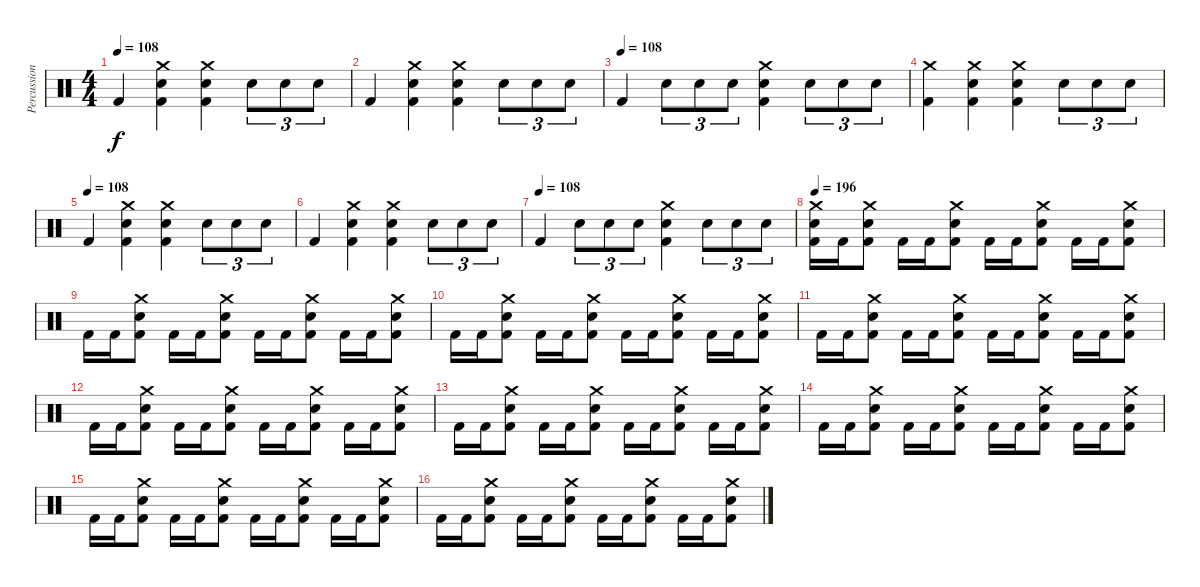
\track ("Percussions" "Percussion") {instrument percussion}
\staff {score}
\articulation defaults
\ts (4 4)
\tempo 108
\clef neutral
\ks c "Kick (hit) 2".4{dy f}
("Kick (hit) 2" "Snare (hit) 2" "Crash medium (hit)").4 ("Kick (hit) 2" "Snare (hit) 2" "Crash medium (hit)").4 "Snare (hit) 2".8{tu (3 2)} "Snare (hit) 2".8{tu (3 2)} "Snare (hit) 2".8{tu (3 2)} |
"Kick (hit) 2".4 ("Kick (hit) 2" "Snare (hit) 2" "Crash medium (hit)").4 ("Kick (hit) 2" "Snare (hit) 2" "Crash medium (hit)").4 "Snare (hit) 2".8{tu (3 2)} "Snare (hit) 2".8{tu (3 2)} "Snare (hit) 2".8{tu (3 2)} |
\tempo (108)
"Kick (hit) 2".4 "Snare (hit) 2".8{tu (3 2)} "Snare (hit) 2".8{tu (3 2)} "Snare (hit) 2".8{tu (3 2)} ("Kick (hit) 2" "Snare (hit) 2" "Crash medium (hit)").4 "Snare (hit) 2".8{tu (3 2)} "Snare (hit) 2".8{tu (3 2)} "Snare (hit) 2".8{tu (3 2)} |
("Kick (hit) 2" "Crash medium (hit)").4 ("Kick (hit) 2" "Crash medium (hit)" "Snare (hit) 2").4 ("Kick (hit) 2" "Crash medium (hit)" "Snare (hit) 2").4 "Snare (hit) 2".8{tu (3 2)} "Snare (hit) 2".8{tu (3 2)} "Snare (hit) 2".8{tu (3 2)} |
\tempo (108)
"Kick (hit) 2".4 ("Kick (hit) 2" "Snare (hit) 2" "Crash medium (hit)").4 ("Kick (hit) 2" "Snare (hit) 2" "Crash medium (hit)").4 "Snare (hit) 2".8{tu (3 2)} "Snare (hit) 2".8{tu (3 2)} "Snare (hit) 2".8{tu (3 2)} |
"Kick (hit) 2".4 ("Kick (hit) 2" "Snare (hit) 2" "Crash medium (hit)").4 ("Kick (hit) 2" "Snare (hit) 2" "Crash medium (hit)").4 "Snare (hit) 2".8{tu (3 2)} "Snare (hit) 2".8{tu (3 2)} "Snare (hit) 2".8{tu (3 2)} |
\tempo (108)
"Kick (hit) 2".4 "Snare (hit) 2".8{tu (3 2)} "Snare (hit) 2".8{tu (3 2)} "Snare (hit) 2".8{tu (3 2)} ("Kick (hit) 2" "Snare (hit) 2" "Crash medium (hit)").4 "Snare (hit) 2".8{tu (3 2)} "Snare (hit) 2".8{tu (3 2)} "Snare (hit) 2".8{tu (3 2)} |
\tempo 196
("Kick (hit) 2" "Snare (hit) 2" "Crash medium (hit)").16 "Kick (hit) 2".16 ("Kick (hit) 2" "Snare (hit) 2" "Crash medium (hit)").8 "Kick (hit) 2".16 "Kick (hit) 2".16 ("Kick (hit) 2" "Snare (hit) 2" "Crash medium (hit)").8 "Kick (hit) 2".16 "Kick (hit) 2".16 ("Kick (hit) 2" "Snare (hit) 2" "Crash medium (hit)").8 "Kick (hit) 2".16 "Kick (hit) 2".16 ("Kick (hit) 2" "Snare (hit) 2" "Crash medium (hit)").8 |
"Kick (hit) 2".16 "Kick (hit) 2".16 ("Kick (hit) 2" "Snare (hit) 2" "Crash medium (hit)").8 "Kick (hit) 2".16 "Kick (hit) 2".16 ("Kick (hit) 2" "Snare (hit) 2" "Crash medium (hit)").8 "Kick (hit) 2".16 "Kick (hit) 2".16 ("Kick (hit) 2" "Snare (hit) 2" "Crash medium (hit)").8 "Kick (hit) 2".16 "Kick (hit) 2".16 ("Kick (hit) 2" "Snare (hit) 2" "Crash medium (hit)").8 |
"Kick (hit) 2".16 "Kick (hit) 2".16 ("Kick (hit) 2" "Snare (hit) 2" "Crash medium (hit)").8 "Kick (hit) 2".16 "Kick (hit) 2".16 ("Kick (hit) 2" "Snare (hit) 2" "Crash medium (hit)").8 "Kick (hit) 2".16 "Kick (hit) 2".16 ("Kick (hit) 2" "Snare (hit) 2" "Crash medium (hit)").8 "Kick (hit) 2".16 "Kick (hit) 2".16 ("Kick (hit) 2" "Snare (hit) 2" "Crash medium (hit)").8 |
"Kick (hit) 2".16 "Kick (hit) 2".16 ("Kick (hit) 2" "Snare (hit) 2" "Crash medium (hit)").8 "Kick (hit) 2".16 "Kick (hit) 2".16 ("Kick (hit) 2" "Snare (hit) 2" "Crash medium (hit)").8 "Kick (hit) 2".16 "Kick (hit) 2".16 ("Kick (hit) 2" "Snare (hit) 2" "Crash medium (hit)").8 "Kick (hit) 2".16 "Kick (hit) 2".16 ("Kick (hit) 2" "Snare (hit) 2" "Crash medium (hit)").8 |
"Kick (hit) 2".16 "Kick (hit) 2".16 ("Kick (hit) 2" "Snare (hit) 2" "Crash medium (hit)").8 "Kick (hit) 2".16 "Kick (hit) 2".16 ("Kick (hit) 2" "Snare (hit) 2" "Crash medium (hit)").8 "Kick (hit) 2".16 "Kick (hit) 2".16 ("Kick (hit) 2" "Snare (hit) 2" "Crash medium (hit)").8 "Kick (hit) 2".16 "Kick (hit) 2".16 ("Kick (hit) 2" "Snare (hit) 2" "Crash medium (hit)").8 |
"Kick (hit) 2".16 "Kick (hit) 2".16 ("Kick (hit) 2" "Snare (hit) 2" "Crash medium (hit)").8 "Kick (hit) 2".16 "Kick (hit) 2".16 ("Kick (hit) 2" "Snare (hit) 2" "Crash medium (hit)").8 "Kick (hit) 2".16 "Kick (hit) 2".16 ("Kick (hit) 2" "Snare (hit) 2" "Crash medium (hit)").8 "Kick (hit) 2".16 "Kick (hit) 2".16 ("Kick (hit) 2" "Snare (hit) 2" "Crash medium (hit)").8 |
"Kick (hit) 2".16 "Kick (hit) 2".16 ("Kick (hit) 2" "Snare (hit) 2" "Crash medium (hit)").8 "Kick (hit) 2".16 "Kick (hit) 2".16 ("Kick (hit) 2" "Snare (hit) 2" "Crash medium (hit)").8 "Kick (hit) 2".16 "Kick (hit) 2".16 ("Kick (hit) 2" "Snare (hit) 2" "Crash medium (hit)").8 "Kick (hit) 2".16 "Kick (hit) 2".16 ("Kick (hit) 2" "Snare (hit) 2" "Crash medium (hit)").8 |
"Kick (hit) 2".16 "Kick (hit) 2".16 ("Kick (hit) 2" "Snare (hit) 2" "Crash medium (hit)").8 "Kick (hit) 2".16 "Kick (hit) 2".16 ("Kick (hit) 2" "Snare (hit) 2" "Crash medium (hit)").8 "Kick (hit) 2".16 "Kick (hit) 2".16 ("Kick (hit) 2" "Snare (hit) 2" "Crash medium (hit)").8 "Kick (hit) 2".16 "Kick (hit) 2".16 ("Kick (hit) 2" "Snare (hit) 2" "Crash medium (hit)").8 |
"Kick (hit) 2".16 "Kick (hit) 2".16 ("Kick (hit) 2" "Snare (hit) 2" "Crash medium (hit)").8 "Kick (hit) 2".16 "Kick (hit) 2".16 ("Kick (hit) 2" "Snare (hit) 2" "Crash medium (hit)").8 "Kick (hit) 2".16 "Kick (hit) 2".16 ("Kick (hit) 2" "Snare (hit) 2" "Crash medium (hit)").8 "Kick (hit) 2".16 "Kick (hit) 2".16 ("Kick (hit) 2" "Snare (hit) 2" "Crash medium (hit)").8
